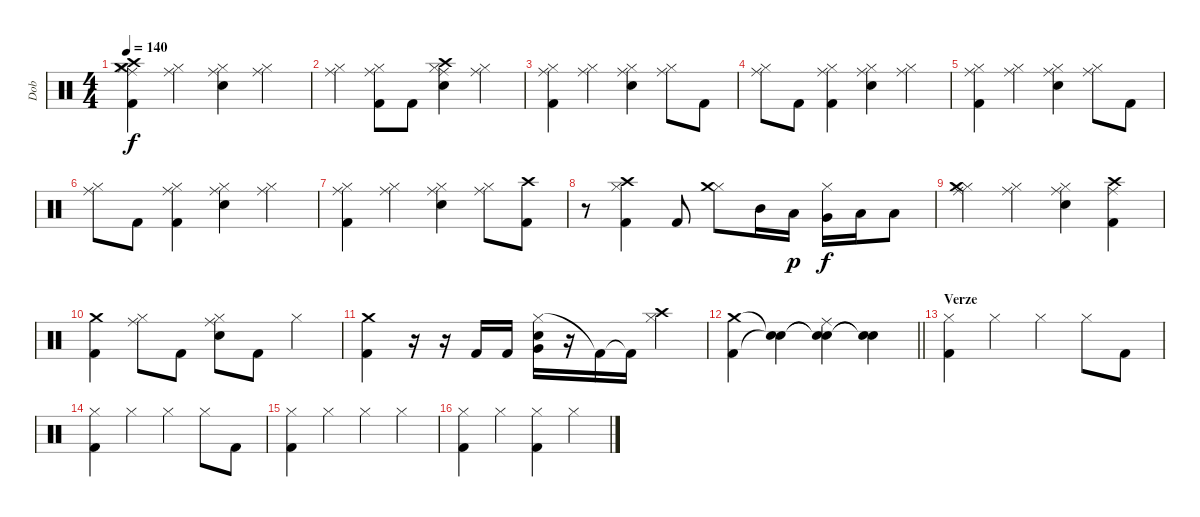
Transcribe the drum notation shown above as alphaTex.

\track ("Dob" "Dob") {instrument percussion}
\staff {score}
\articulation defaults
\ts (4 4)
\tempo 140
\clef neutral
\ks c
("Hi-Hat (closed)" "Crash high (hit)" "Kick (hit) 2" "Crash medium (hit)" "Ride (middle)").4{dy f} ("Hi-Hat (closed)" "Ride (middle)").4 ("Hi-Hat (closed)" "Electric Snare (hit)" "Ride (middle)").4 ("Hi-Hat (closed)" "Ride (middle)").4 |
("Hi-Hat (closed)" "Ride (middle)").4 ("Hi-Hat (closed)" "Kick (hit) 2" "Ride (middle)").8 "Kick (hit) 2".8 ("Hi-Hat (closed)" "Crash high (hit)" "Electric Snare (hit)" "Ride (middle)").4 ("Hi-Hat (closed)" "Ride (middle)").4 |
("Hi-Hat (closed)" "Kick (hit) 2" "Ride (middle)").4 ("Hi-Hat (closed)" "Ride (middle)").4 ("Hi-Hat (closed)" "Electric Snare (hit)" "Ride (middle)").4 ("Hi-Hat (closed)" "Ride (middle)").8 "Kick (hit) 2".8 |
("Hi-Hat (closed)" "Ride (middle)").8 "Kick (hit) 2".8 ("Hi-Hat (closed)" "Kick (hit) 2" "Ride (middle)").4 ("Hi-Hat (closed)" "Electric Snare (hit)" "Ride (middle)").4 ("Hi-Hat (closed)" "Ride (middle)").4 |
("Hi-Hat (closed)" "Kick (hit) 2" "Ride (middle)").4 ("Hi-Hat (closed)" "Ride (middle)").4 ("Hi-Hat (closed)" "Electric Snare (hit)" "Ride (middle)").4 ("Hi-Hat (closed)" "Ride (middle)").8 "Kick (hit) 2".8 |
("Hi-Hat (closed)" "Ride (middle)").8 "Kick (hit) 2".8 ("Hi-Hat (closed)" "Kick (hit) 2" "Ride (middle)").4 ("Hi-Hat (closed)" "Electric Snare (hit)" "Ride (middle)").4 ("Hi-Hat (closed)" "Ride (middle)").4 |
("Hi-Hat (closed)" "Kick (hit) 2" "Ride (middle)").4 ("Hi-Hat (closed)" "Ride (middle)").4 ("Hi-Hat (closed)" "Electric Snare (hit)" "Ride (middle)").4 ("Hi-Hat (closed)" "Ride (middle)").8 ("Crash high (hit)" "Kick (hit) 2").8 |
r.8 ("Hi-Hat (closed)" "Crash high (hit)" "Kick (hit) 2").4 "Kick (hit) 2".8 ("Hi-Hat (closed)" "Crash medium (hit)").8 "Mid Tom (hit)".16 "Low Tom (hit)".16{dy p} ("Hi-Hat (closed)" "Very Low Tom (hit)").16{dy f} "Low Floor Tom (hit)".16 "Low Floor Tom (hit)".8 |
("Hi-Hat (closed)" "Crash medium (hit)" "Ride (middle)").4 ("Hi-Hat (closed)" "Ride (middle)").4 ("Hi-Hat (closed)" "Electric Snare (hit)" "Ride (middle)").4 ("Crash high (hit)" "Kick (hit) 2" "Ride (middle)").4 |
("Crash medium (hit)" "Kick (hit) 2").4 ("Hi-Hat (closed)" "Ride (middle)").8 "Kick (hit) 2".8 ("Hi-Hat (closed)" "Electric Snare (hit)" "Ride (middle)").8 "Kick (hit) 2".8 "Hi-Hat (closed)".4 |
("Crash medium (hit)" "Kick (hit) 2").4 r.16 r.16 "Kick (hit) 2".16 "Kick (hit) 2".16 ("Hi-Hat (closed)" "Very Low Tom (hit)" "Electric Snare (hit)").16 r.16 "Kick (hit) 2"{t}.16 "Kick (hit) 2"{t}.16 ("Hi-Hat (closed)" "Crash high (hit)").4 |
\barLineRight lightlight
("Crash medium (hit)" "Kick (hit) 2").4 ("Snare (hit)"{t} "Snare (hit)"{t}).4 ("Snare (hit)"{t} "Snare (hit)"{t} "Ride (middle)").4 ("Snare (hit)"{t} "Snare (hit)"{t}).4 |
\section ("" "Verze")
("Hi-Hat (closed)" "Kick (hit) 2").4 "Hi-Hat (closed)".4 "Hi-Hat (closed)".4 "Hi-Hat (closed)".8 "Kick (hit) 2".8 |
("Hi-Hat (closed)" "Kick (hit) 2").4 "Hi-Hat (closed)".4 "Hi-Hat (closed)".4 "Hi-Hat (closed)".8 "Kick (hit) 2".8 |
("Hi-Hat (closed)" "Kick (hit) 2").4 "Hi-Hat (closed)".4 "Hi-Hat (closed)".4 "Hi-Hat (closed)".4 |
("Hi-Hat (closed)" "Kick (hit) 2").4 "Hi-Hat (closed)".4 ("Hi-Hat (closed)" "Kick (hit) 2").4 "Hi-Hat (closed)".4
